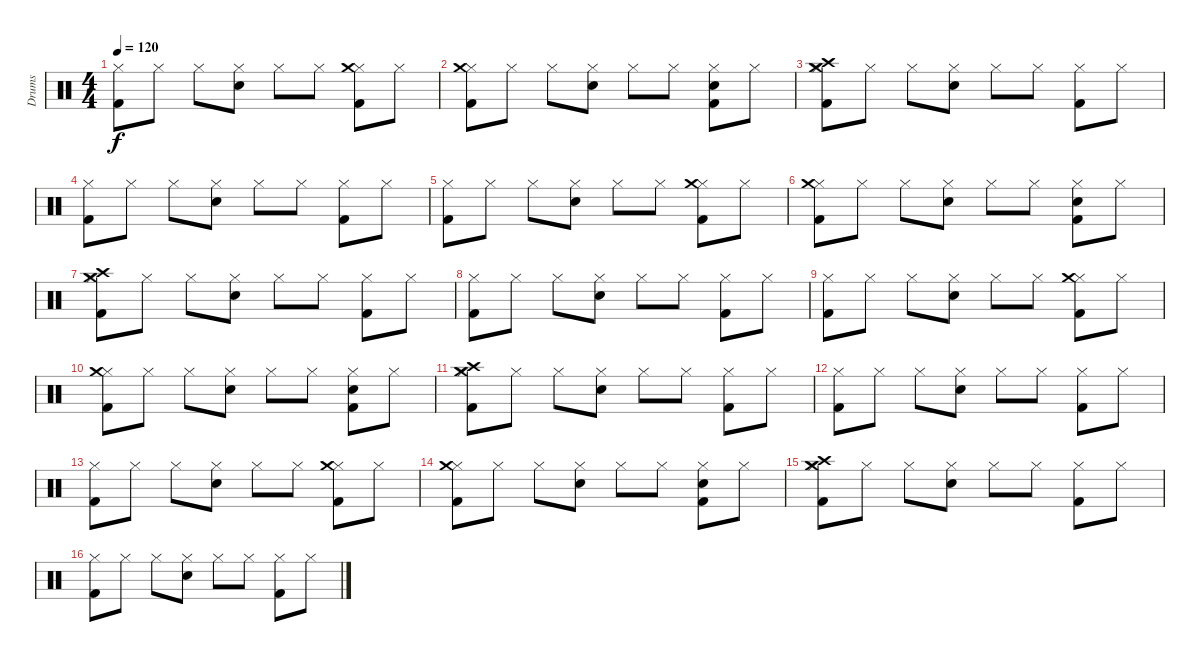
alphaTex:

\track ("Drums" "Drums") {instrument percussion}
\staff {score}
\articulation defaults
\ts (4 4)
\tempo 120
\clef neutral
\ks c
("Kick (hit) 2" "Hi-Hat (closed)").8{dy f} "Hi-Hat (closed)".8 "Hi-Hat (closed)".8 ("Snare (hit) 2" "Hi-Hat (closed)").8 "Hi-Hat (closed)".8 "Hi-Hat (closed)".8 ("Kick (hit) 2" "Hi-Hat (closed)" "Crash medium (hit)").8 "Hi-Hat (closed)".8 |
("Kick (hit) 2" "Hi-Hat (closed)" "Crash medium (hit)").8 "Hi-Hat (closed)".8 "Hi-Hat (closed)".8 ("Snare (hit) 2" "Hi-Hat (closed)").8 "Hi-Hat (closed)".8 "Hi-Hat (closed)".8 ("Kick (hit) 2" "Snare (hit) 2" "Hi-Hat (closed)").8 "Hi-Hat (closed)".8 |
("Kick (hit) 2" "Hi-Hat (closed)" "Crash high (hit)" "Crash medium (hit)").8 "Hi-Hat (closed)".8 "Hi-Hat (closed)".8 ("Snare (hit) 2" "Hi-Hat (closed)").8 "Hi-Hat (closed)".8 "Hi-Hat (closed)".8 ("Kick (hit) 2" "Hi-Hat (closed)").8 "Hi-Hat (closed)".8 |
("Kick (hit) 2" "Hi-Hat (closed)").8 "Hi-Hat (closed)".8 "Hi-Hat (closed)".8 ("Snare (hit) 2" "Hi-Hat (closed)").8 "Hi-Hat (closed)".8 "Hi-Hat (closed)".8 ("Kick (hit) 2" "Hi-Hat (closed)").8 "Hi-Hat (closed)".8 |
("Kick (hit) 2" "Hi-Hat (closed)").8 "Hi-Hat (closed)".8 "Hi-Hat (closed)".8 ("Snare (hit) 2" "Hi-Hat (closed)").8 "Hi-Hat (closed)".8 "Hi-Hat (closed)".8 ("Kick (hit) 2" "Hi-Hat (closed)" "Crash medium (hit)").8 "Hi-Hat (closed)".8 |
("Kick (hit) 2" "Hi-Hat (closed)" "Crash medium (hit)").8 "Hi-Hat (closed)".8 "Hi-Hat (closed)".8 ("Snare (hit) 2" "Hi-Hat (closed)").8 "Hi-Hat (closed)".8 "Hi-Hat (closed)".8 ("Kick (hit) 2" "Snare (hit) 2" "Hi-Hat (closed)").8 "Hi-Hat (closed)".8 |
("Kick (hit) 2" "Hi-Hat (closed)" "Crash high (hit)" "Crash medium (hit)").8 "Hi-Hat (closed)".8 "Hi-Hat (closed)".8 ("Snare (hit) 2" "Hi-Hat (closed)").8 "Hi-Hat (closed)".8 "Hi-Hat (closed)".8 ("Kick (hit) 2" "Hi-Hat (closed)").8 "Hi-Hat (closed)".8 |
("Kick (hit) 2" "Hi-Hat (closed)").8 "Hi-Hat (closed)".8 "Hi-Hat (closed)".8 ("Snare (hit) 2" "Hi-Hat (closed)").8 "Hi-Hat (closed)".8 "Hi-Hat (closed)".8 ("Kick (hit) 2" "Hi-Hat (closed)").8 "Hi-Hat (closed)".8 |
("Kick (hit) 2" "Hi-Hat (closed)").8 "Hi-Hat (closed)".8 "Hi-Hat (closed)".8 ("Snare (hit) 2" "Hi-Hat (closed)").8 "Hi-Hat (closed)".8 "Hi-Hat (closed)".8 ("Kick (hit) 2" "Hi-Hat (closed)" "Crash medium (hit)").8 "Hi-Hat (closed)".8 |
("Kick (hit) 2" "Hi-Hat (closed)" "Crash medium (hit)").8 "Hi-Hat (closed)".8 "Hi-Hat (closed)".8 ("Snare (hit) 2" "Hi-Hat (closed)").8 "Hi-Hat (closed)".8 "Hi-Hat (closed)".8 ("Kick (hit) 2" "Snare (hit) 2" "Hi-Hat (closed)").8 "Hi-Hat (closed)".8 |
("Kick (hit) 2" "Hi-Hat (closed)" "Crash high (hit)" "Crash medium (hit)").8 "Hi-Hat (closed)".8 "Hi-Hat (closed)".8 ("Snare (hit) 2" "Hi-Hat (closed)").8 "Hi-Hat (closed)".8 "Hi-Hat (closed)".8 ("Kick (hit) 2" "Hi-Hat (closed)").8 "Hi-Hat (closed)".8 |
("Kick (hit) 2" "Hi-Hat (closed)").8 "Hi-Hat (closed)".8 "Hi-Hat (closed)".8 ("Snare (hit) 2" "Hi-Hat (closed)").8 "Hi-Hat (closed)".8 "Hi-Hat (closed)".8 ("Kick (hit) 2" "Hi-Hat (closed)").8 "Hi-Hat (closed)".8 |
("Kick (hit) 2" "Hi-Hat (closed)").8 "Hi-Hat (closed)".8 "Hi-Hat (closed)".8 ("Snare (hit) 2" "Hi-Hat (closed)").8 "Hi-Hat (closed)".8 "Hi-Hat (closed)".8 ("Kick (hit) 2" "Hi-Hat (closed)" "Crash medium (hit)").8 "Hi-Hat (closed)".8 |
("Kick (hit) 2" "Hi-Hat (closed)" "Crash medium (hit)").8 "Hi-Hat (closed)".8 "Hi-Hat (closed)".8 ("Snare (hit) 2" "Hi-Hat (closed)").8 "Hi-Hat (closed)".8 "Hi-Hat (closed)".8 ("Kick (hit) 2" "Snare (hit) 2" "Hi-Hat (closed)").8 "Hi-Hat (closed)".8 |
("Kick (hit) 2" "Hi-Hat (closed)" "Crash high (hit)" "Crash medium (hit)").8 "Hi-Hat (closed)".8 "Hi-Hat (closed)".8 ("Snare (hit) 2" "Hi-Hat (closed)").8 "Hi-Hat (closed)".8 "Hi-Hat (closed)".8 ("Kick (hit) 2" "Hi-Hat (closed)").8 "Hi-Hat (closed)".8 |
("Kick (hit) 2" "Hi-Hat (closed)").8 "Hi-Hat (closed)".8 "Hi-Hat (closed)".8 ("Snare (hit) 2" "Hi-Hat (closed)").8 "Hi-Hat (closed)".8 "Hi-Hat (closed)".8 ("Kick (hit) 2" "Hi-Hat (closed)").8 "Hi-Hat (closed)".8
